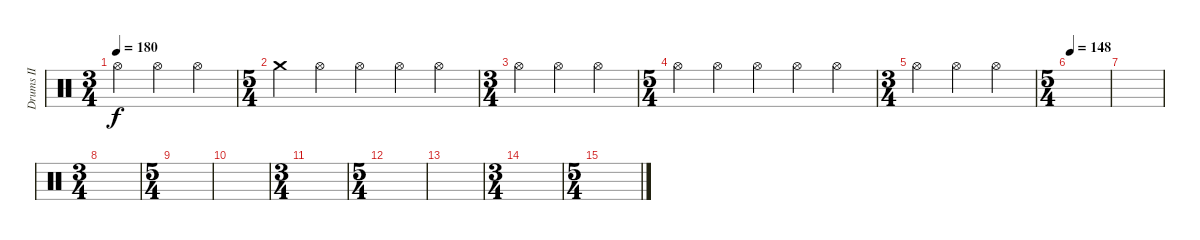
\track ("Drums II" "Drums II") {instrument percussion}
\staff {score}
\articulation defaults
\ts (3 4)
\tempo 180
\clef neutral
\ks c "Hi-Hat (open)".4{dy f} "Hi-Hat (open)".4 "Hi-Hat (open)".4
|
\ts (5 4)
"Crash medium (hit)".4 "Hi-Hat (open)".4 "Hi-Hat (open)".4 "Hi-Hat (open)".4 "Hi-Hat (open)".4 |
\ts (3 4)
"Hi-Hat (open)".4 "Hi-Hat (open)".4 "Hi-Hat (open)".4 |
\ts (5 4)
"Hi-Hat (open)".4 "Hi-Hat (open)".4 "Hi-Hat (open)".4 "Hi-Hat (open)".4 "Hi-Hat (open)".4 |
\ts (3 4)
"Hi-Hat (open)".4 "Hi-Hat (open)".4 "Hi-Hat (open)".4 |
\ts (5 4)
\tempo 148
|
|
\ts (3 4)
|
\ts (5 4)
|
|
\ts (3 4)
|
\ts (5 4)
|
|
\ts (3 4)
|
\ts (5 4)
